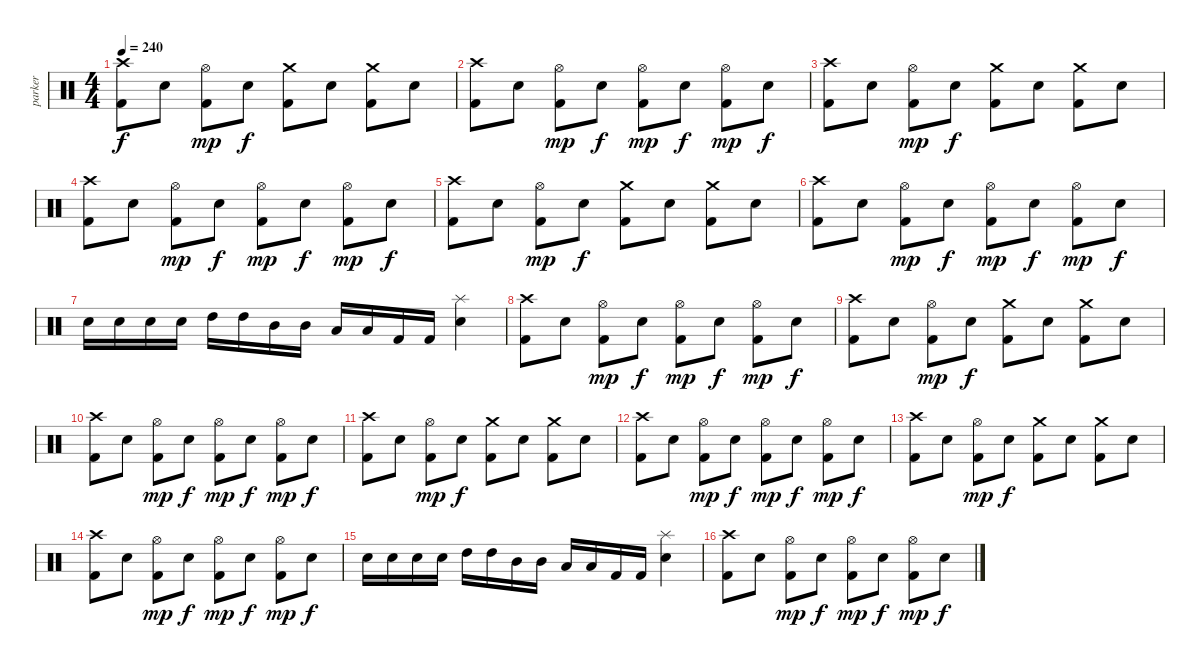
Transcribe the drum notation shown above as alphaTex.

\track ("parker" "parker") {instrument percussion}
\staff {score}
\articulation defaults
\ts (4 4)
\tempo 240
\clef neutral
\ks c
("Crash high (hit)" "Kick (hit) 2").8{dy f} "Electric Snare (hit)".8 ("Hi-Hat (open)" "Kick (hit) 2").8{dy mp} "Electric Snare (hit)".8{dy f} ("Crash medium (hit)" "Kick (hit) 2").8 "Electric Snare (hit)".8 ("Crash medium (hit)" "Kick (hit) 2").8 "Electric Snare (hit)".8 |
("Crash high (hit)" "Kick (hit) 2").8 "Electric Snare (hit)".8 ("Hi-Hat (open)" "Kick (hit) 2").8{dy mp} "Electric Snare (hit)".8{dy f} ("Hi-Hat (open)" "Kick (hit) 2").8{dy mp} "Electric Snare (hit)".8{dy f} ("Hi-Hat (open)" "Kick (hit) 2").8{dy mp} "Electric Snare (hit)".8{dy f} |
("Crash high (hit)" "Kick (hit) 2").8 "Electric Snare (hit)".8 ("Hi-Hat (open)" "Kick (hit) 2").8{dy mp} "Electric Snare (hit)".8{dy f} ("Crash medium (hit)" "Kick (hit) 2").8 "Electric Snare (hit)".8 ("Crash medium (hit)" "Kick (hit) 2").8 "Electric Snare (hit)".8 |
("Crash high (hit)" "Kick (hit) 2").8 "Electric Snare (hit)".8 ("Hi-Hat (open)" "Kick (hit) 2").8{dy mp} "Electric Snare (hit)".8{dy f} ("Hi-Hat (open)" "Kick (hit) 2").8{dy mp} "Electric Snare (hit)".8{dy f} ("Hi-Hat (open)" "Kick (hit) 2").8{dy mp} "Electric Snare (hit)".8{dy f} |
("Crash high (hit)" "Kick (hit) 2").8 "Electric Snare (hit)".8 ("Hi-Hat (open)" "Kick (hit) 2").8{dy mp} "Electric Snare (hit)".8{dy f} ("Crash medium (hit)" "Kick (hit) 2").8 "Electric Snare (hit)".8 ("Crash medium (hit)" "Kick (hit) 2").8 "Electric Snare (hit)".8 |
("Crash high (hit)" "Kick (hit) 2").8 "Electric Snare (hit)".8 ("Hi-Hat (open)" "Kick (hit) 2").8{dy mp} "Electric Snare (hit)".8{dy f} ("Hi-Hat (open)" "Kick (hit) 2").8{dy mp} "Electric Snare (hit)".8{dy f} ("Hi-Hat (open)" "Kick (hit) 2").8{dy mp} "Electric Snare (hit)".8{dy f} |
"Electric Snare (hit)".16 "Electric Snare (hit)".16 "Electric Snare (hit)".16 "Electric Snare (hit)".16 "High Tom (hit)".16 "High Tom (hit)".16 "Mid Tom (hit)".16 "Mid Tom (hit)".16 "Low Tom (hit)".16 "Low Tom (hit)".16 "Kick (hit) 2".16 "Kick (hit) 2".16 ("Splash (hit)" "Electric Snare (hit)").4 |
("Crash high (hit)" "Kick (hit) 2").8 "Electric Snare (hit)".8 ("Hi-Hat (open)" "Kick (hit) 2").8{dy mp} "Electric Snare (hit)".8{dy f} ("Hi-Hat (open)" "Kick (hit) 2").8{dy mp} "Electric Snare (hit)".8{dy f} ("Hi-Hat (open)" "Kick (hit) 2").8{dy mp} "Electric Snare (hit)".8{dy f} |
("Crash high (hit)" "Kick (hit) 2").8 "Electric Snare (hit)".8 ("Hi-Hat (open)" "Kick (hit) 2").8{dy mp} "Electric Snare (hit)".8{dy f} ("Crash medium (hit)" "Kick (hit) 2").8 "Electric Snare (hit)".8 ("Crash medium (hit)" "Kick (hit) 2").8 "Electric Snare (hit)".8 |
("Crash high (hit)" "Kick (hit) 2").8 "Electric Snare (hit)".8 ("Hi-Hat (open)" "Kick (hit) 2").8{dy mp} "Electric Snare (hit)".8{dy f} ("Hi-Hat (open)" "Kick (hit) 2").8{dy mp} "Electric Snare (hit)".8{dy f} ("Hi-Hat (open)" "Kick (hit) 2").8{dy mp} "Electric Snare (hit)".8{dy f} |
("Crash high (hit)" "Kick (hit) 2").8 "Electric Snare (hit)".8 ("Hi-Hat (open)" "Kick (hit) 2").8{dy mp} "Electric Snare (hit)".8{dy f} ("Crash medium (hit)" "Kick (hit) 2").8 "Electric Snare (hit)".8 ("Crash medium (hit)" "Kick (hit) 2").8 "Electric Snare (hit)".8 |
("Crash high (hit)" "Kick (hit) 2").8 "Electric Snare (hit)".8 ("Hi-Hat (open)" "Kick (hit) 2").8{dy mp} "Electric Snare (hit)".8{dy f} ("Hi-Hat (open)" "Kick (hit) 2").8{dy mp} "Electric Snare (hit)".8{dy f} ("Hi-Hat (open)" "Kick (hit) 2").8{dy mp} "Electric Snare (hit)".8{dy f} |
("Crash high (hit)" "Kick (hit) 2").8 "Electric Snare (hit)".8 ("Hi-Hat (open)" "Kick (hit) 2").8{dy mp} "Electric Snare (hit)".8{dy f} ("Crash medium (hit)" "Kick (hit) 2").8 "Electric Snare (hit)".8 ("Crash medium (hit)" "Kick (hit) 2").8 "Electric Snare (hit)".8 |
("Crash high (hit)" "Kick (hit) 2").8 "Electric Snare (hit)".8 ("Hi-Hat (open)" "Kick (hit) 2").8{dy mp} "Electric Snare (hit)".8{dy f} ("Hi-Hat (open)" "Kick (hit) 2").8{dy mp} "Electric Snare (hit)".8{dy f} ("Hi-Hat (open)" "Kick (hit) 2").8{dy mp} "Electric Snare (hit)".8{dy f} |
"Electric Snare (hit)".16 "Electric Snare (hit)".16 "Electric Snare (hit)".16 "Electric Snare (hit)".16 "High Tom (hit)".16 "High Tom (hit)".16 "Mid Tom (hit)".16 "Mid Tom (hit)".16 "Low Tom (hit)".16 "Low Tom (hit)".16 "Kick (hit) 2".16 "Kick (hit) 2".16 ("Splash (hit)" "Electric Snare (hit)").4 |
("Crash high (hit)" "Kick (hit) 2").8 "Electric Snare (hit)".8 ("Hi-Hat (open)" "Kick (hit) 2").8{dy mp} "Electric Snare (hit)".8{dy f} ("Hi-Hat (open)" "Kick (hit) 2").8{dy mp} "Electric Snare (hit)".8{dy f} ("Hi-Hat (open)" "Kick (hit) 2").8{dy mp} "Electric Snare (hit)".8{dy f}
